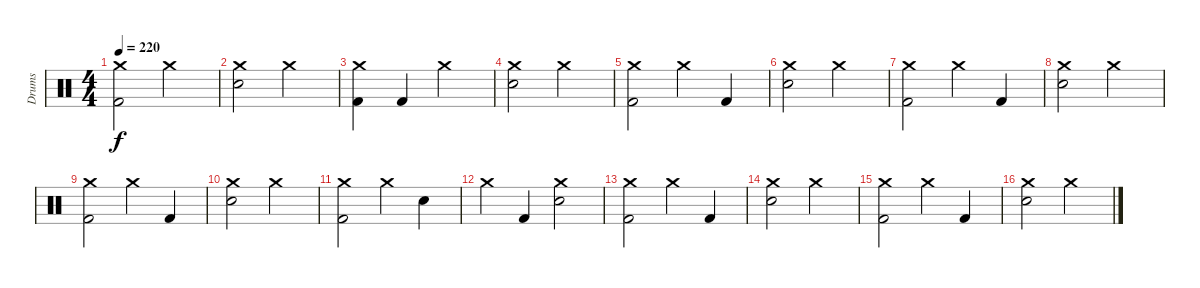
\track ("Drums" "Drums") {instrument percussion}
\staff {score}
\articulation defaults
\ts (4 4)
\tempo 220
\clef neutral
\ks c
("Crash medium (hit)" "Kick (hit) 2").2{dy f} "Crash medium (hit)".2 |
("Crash medium (hit)" "Electric Snare (hit)").2 "Crash medium (hit)".2 |
("Crash medium (hit)" "Kick (hit) 2").4 "Kick (hit) 2".4 "Crash medium (hit)".2 |
("Crash medium (hit)" "Electric Snare (hit)").2 "Crash medium (hit)".2 |
("Crash medium (hit)" "Kick (hit) 2").2 "Crash medium (hit)".4 "Kick (hit) 2".4 |
("Crash medium (hit)" "Electric Snare (hit)").2 "Crash medium (hit)".2 |
("Crash medium (hit)" "Kick (hit) 2").2 "Crash medium (hit)".4 "Kick (hit) 2".4 |
("Crash medium (hit)" "Electric Snare (hit)").2 "Crash medium (hit)".2 |
("Crash medium (hit)" "Kick (hit) 2").2 "Crash medium (hit)".4 "Kick (hit) 2".4 |
("Crash medium (hit)" "Electric Snare (hit)").2 "Crash medium (hit)".2 |
("Crash medium (hit)" "Kick (hit) 2").2 "Crash medium (hit)".4 "Electric Snare (hit)".4 |
"Crash medium (hit)".4 "Kick (hit) 2".4 ("Crash medium (hit)" "Electric Snare (hit)").2 |
("Crash medium (hit)" "Kick (hit) 2").2 "Crash medium (hit)".4 "Kick (hit) 2".4 |
("Crash medium (hit)" "Electric Snare (hit)").2 "Crash medium (hit)".2 |
("Crash medium (hit)" "Kick (hit) 2").2 "Crash medium (hit)".4 "Kick (hit) 2".4 |
("Crash medium (hit)" "Electric Snare (hit)").2 "Crash medium (hit)".2
